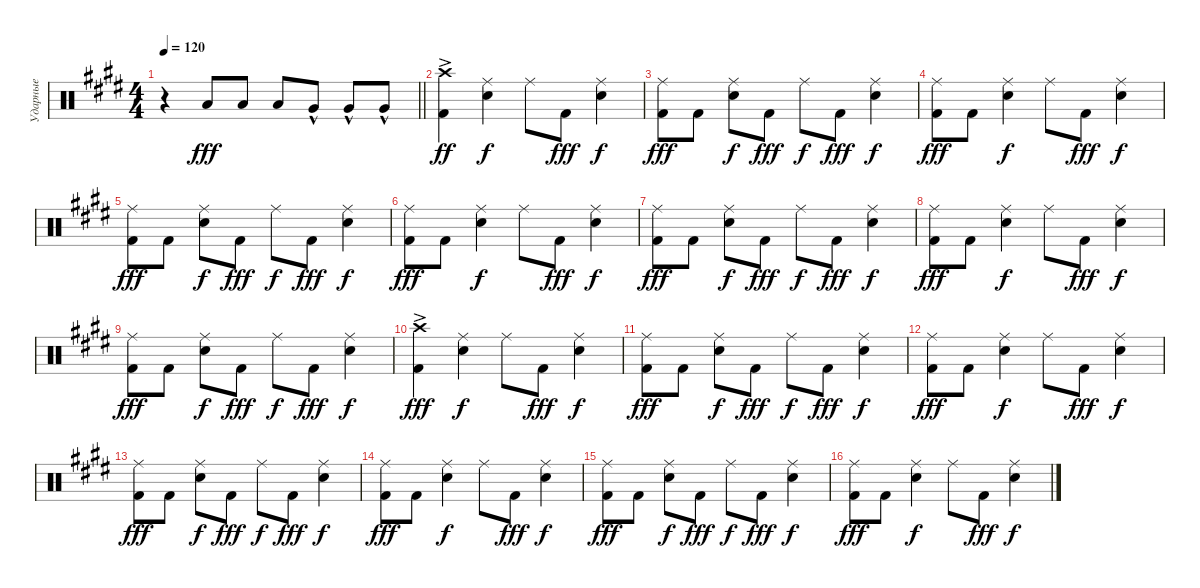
\track ("Ударные" "Ударные") {instrument percussion}
\staff {score}
\articulation defaults
\ts (4 4)
\tempo 120
\clef neutral
\barLineRight lightlight
\ks e
r.4{dy f} "Low Tom (hit)".8{dy fff} "Low Tom (hit)".8 "Low Tom (hit)".8 "Very Low Tom (hit)"{hac}.8 "Very Low Tom (hit)"{hac}.8 "Very Low Tom (hit)"{hac}.8 |
("Kick (hit) 2" "Crash high (hit)"{ac}).4{dy ff} ("Snare (hit) 2" "Ride (middle)").4{dy f} "Ride (middle)".8 "Kick (hit) 2".8{dy fff} ("Snare (hit) 2" "Ride (middle)").4{dy f} |
("Kick (hit) 2" "Ride (middle)").8{dy fff} "Kick (hit) 2".8 ("Snare (hit) 2" "Ride (middle)").8{dy f} "Kick (hit) 2".8{dy fff} "Ride (middle)".8{dy f} "Kick (hit) 2".8{dy fff} ("Snare (hit) 2" "Ride (middle)").4{dy f} |
("Kick (hit) 2" "Ride (middle)").8{dy fff} "Kick (hit) 2".8 ("Snare (hit) 2" "Ride (middle)").4{dy f} "Ride (middle)".8 "Kick (hit) 2".8{dy fff} ("Snare (hit) 2" "Ride (middle)").4{dy f} |
("Kick (hit) 2" "Ride (middle)").8{dy fff} "Kick (hit) 2".8 ("Snare (hit) 2" "Ride (middle)").8{dy f} "Kick (hit) 2".8{dy fff} "Ride (middle)".8{dy f} "Kick (hit) 2".8{dy fff} ("Snare (hit) 2" "Ride (middle)").4{dy f} |
("Kick (hit) 2" "Ride (middle)").8{dy fff} "Kick (hit) 2".8 ("Snare (hit) 2" "Ride (middle)").4{dy f} "Ride (middle)".8 "Kick (hit) 2".8{dy fff} ("Snare (hit) 2" "Ride (middle)").4{dy f} |
("Kick (hit) 2" "Ride (middle)").8{dy fff} "Kick (hit) 2".8 ("Snare (hit) 2" "Ride (middle)").8{dy f} "Kick (hit) 2".8{dy fff} "Ride (middle)".8{dy f} "Kick (hit) 2".8{dy fff} ("Snare (hit) 2" "Ride (middle)").4{dy f} |
("Kick (hit) 2" "Ride (middle)").8{dy fff} "Kick (hit) 2".8 ("Snare (hit) 2" "Ride (middle)").4{dy f} "Ride (middle)".8 "Kick (hit) 2".8{dy fff} ("Snare (hit) 2" "Ride (middle)").4{dy f} |
("Kick (hit) 2" "Ride (middle)").8{dy fff} "Kick (hit) 2".8 ("Snare (hit) 2" "Ride (middle)").8{dy f} "Kick (hit) 2".8{dy fff} "Ride (middle)".8{dy f} "Kick (hit) 2".8{dy fff} ("Snare (hit) 2" "Ride (middle)").4{dy f} |
("Kick (hit) 2" "Crash high (hit)"{ac}).4{dy fff} ("Snare (hit) 2" "Ride (middle)").4{dy f} "Ride (middle)".8 "Kick (hit) 2".8{dy fff} ("Snare (hit) 2" "Ride (middle)").4{dy f} |
("Kick (hit) 2" "Ride (middle)").8{dy fff} "Kick (hit) 2".8 ("Snare (hit) 2" "Ride (middle)").8{dy f} "Kick (hit) 2".8{dy fff} "Ride (middle)".8{dy f} "Kick (hit) 2".8{dy fff} ("Snare (hit) 2" "Ride (middle)").4{dy f} |
("Kick (hit) 2" "Ride (middle)").8{dy fff} "Kick (hit) 2".8 ("Snare (hit) 2" "Ride (middle)").4{dy f} "Ride (middle)".8 "Kick (hit) 2".8{dy fff} ("Snare (hit) 2" "Ride (middle)").4{dy f} |
("Kick (hit) 2" "Ride (middle)").8{dy fff} "Kick (hit) 2".8 ("Snare (hit) 2" "Ride (middle)").8{dy f} "Kick (hit) 2".8{dy fff} "Ride (middle)".8{dy f} "Kick (hit) 2".8{dy fff} ("Snare (hit) 2" "Ride (middle)").4{dy f} |
("Kick (hit) 2" "Ride (middle)").8{dy fff} "Kick (hit) 2".8 ("Snare (hit) 2" "Ride (middle)").4{dy f} "Ride (middle)".8 "Kick (hit) 2".8{dy fff} ("Snare (hit) 2" "Ride (middle)").4{dy f} |
("Kick (hit) 2" "Ride (middle)").8{dy fff} "Kick (hit) 2".8 ("Snare (hit) 2" "Ride (middle)").8{dy f} "Kick (hit) 2".8{dy fff} "Ride (middle)".8{dy f} "Kick (hit) 2".8{dy fff} ("Snare (hit) 2" "Ride (middle)").4{dy f} |
("Kick (hit) 2" "Ride (middle)").8{dy fff} "Kick (hit) 2".8 ("Snare (hit) 2" "Ride (middle)").4{dy f} "Ride (middle)".8 "Kick (hit) 2".8{dy fff} ("Snare (hit) 2" "Ride (middle)").4{dy f}
